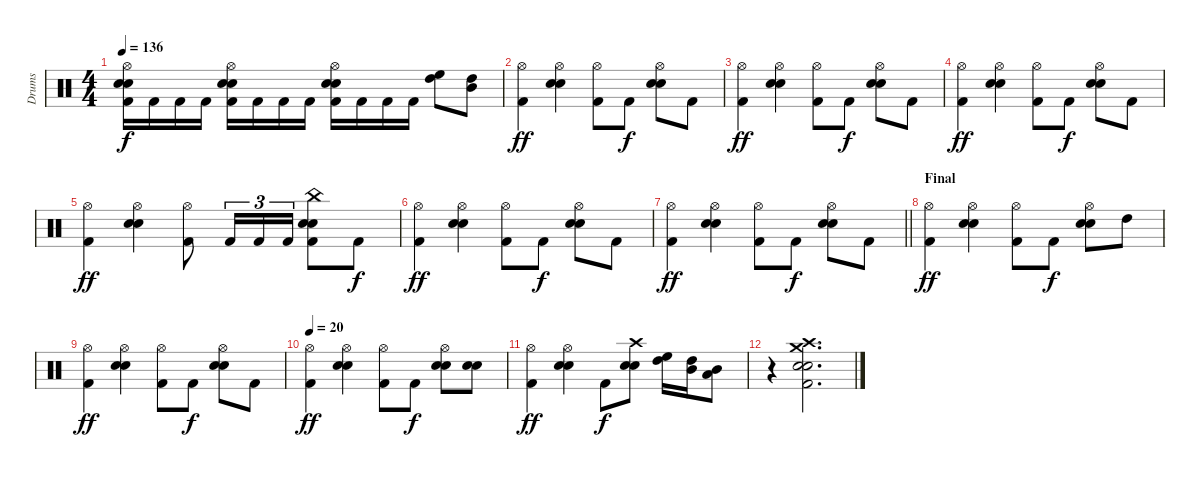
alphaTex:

\track ("Drums" "Drums") {instrument percussion}
\staff {score}
\articulation defaults
\ts (4 4)
\tempo 136
\clef neutral
\ks c
("Hi-Hat (open)" "Electric Snare (hit)" "Snare (hit) 2" "Kick (hit) 2").16{dy f} "Kick (hit) 2".16 "Kick (hit) 2".16 "Kick (hit) 2".16 ("Hi-Hat (open)" "Electric Snare (hit)" "Snare (hit) 2" "Kick (hit) 2").16 "Kick (hit) 2".16 "Kick (hit) 2".16 "Kick (hit) 2".16 ("Hi-Hat (open)" "Electric Snare (hit)" "Snare (hit) 2" "Kick (hit) 2").16 "Kick (hit) 2".16 "Kick (hit) 2".16 "Kick (hit) 2".16 ("High Floor Tom (hit)" "High Tom (hit)").8 ("High Tom (hit)" "Mid Tom (hit)").8 |
("Hi-Hat (open)" "Kick (hit) 2").4{dy ff} ("Hi-Hat (open)" "Electric Snare (hit)" "Snare (hit) 2").4 ("Hi-Hat (open)" "Kick (hit) 2").8 "Kick (hit) 2".8{dy f} ("Hi-Hat (open)" "Electric Snare (hit)" "Snare (hit) 2").8 "Kick (hit) 2".8 |
("Hi-Hat (open)" "Kick (hit) 2").4{dy ff} ("Hi-Hat (open)" "Electric Snare (hit)" "Snare (hit) 2").4 ("Hi-Hat (open)" "Kick (hit) 2").8 "Kick (hit) 2".8{dy f} ("Hi-Hat (open)" "Electric Snare (hit)" "Snare (hit) 2").8 "Kick (hit) 2".8 |
("Hi-Hat (open)" "Kick (hit) 2").4{dy ff} ("Hi-Hat (open)" "Electric Snare (hit)" "Snare (hit) 2").4 ("Hi-Hat (open)" "Kick (hit) 2").8 "Kick (hit) 2".8{dy f} ("Hi-Hat (open)" "Electric Snare (hit)" "Snare (hit) 2").8 "Kick (hit) 2".8 |
("Hi-Hat (open)" "Kick (hit) 2").4{dy ff} ("Hi-Hat (open)" "Electric Snare (hit)" "Snare (hit) 2").4 ("Hi-Hat (open)" "Kick (hit) 2").8 "Kick (hit) 2".16{tu (3 2)} "Kick (hit) 2".16{tu (3 2)} "Kick (hit) 2".16{tu (3 2)} ("China (hit)" "Electric Snare (hit)" "Snare (hit) 2" "Kick (hit) 2").8 "Kick (hit) 2".8{dy f} |
("Hi-Hat (open)" "Kick (hit) 2").4{dy ff} ("Hi-Hat (open)" "Electric Snare (hit)" "Snare (hit) 2").4 ("Hi-Hat (open)" "Kick (hit) 2").8 "Kick (hit) 2".8{dy f} ("Hi-Hat (open)" "Electric Snare (hit)" "Snare (hit) 2").8 "Kick (hit) 2".8 |
\barLineRight lightlight
("Hi-Hat (open)" "Kick (hit) 2").4{dy ff} ("Hi-Hat (open)" "Electric Snare (hit)" "Snare (hit) 2").4 ("Hi-Hat (open)" "Kick (hit) 2").8 "Kick (hit) 2".8{dy f} ("Hi-Hat (open)" "Electric Snare (hit)" "Snare (hit) 2").8 "Kick (hit) 2".8 |
\section ("" "Final")
("Hi-Hat (open)" "Kick (hit) 2").4{dy ff} ("Hi-Hat (open)" "Electric Snare (hit)" "Snare (hit) 2").4 ("Hi-Hat (open)" "Kick (hit) 2").8 "Kick (hit) 2".8{dy f} ("Hi-Hat (open)" "Electric Snare (hit)" "Snare (hit) 2").8 "High Tom (hit)".8 |
("Hi-Hat (open)" "Kick (hit) 2").4{dy ff} ("Hi-Hat (open)" "Electric Snare (hit)" "Snare (hit) 2").4 ("Hi-Hat (open)" "Kick (hit) 2").8 "Kick (hit) 2".8{dy f} ("Hi-Hat (open)" "Electric Snare (hit)" "Snare (hit) 2").8 "Kick (hit) 2".8 |
\tempo 20
("Hi-Hat (open)" "Kick (hit) 2").4{dy ff} ("Hi-Hat (open)" "Electric Snare (hit)" "Snare (hit) 2").4 ("Hi-Hat (open)" "Kick (hit) 2").8 "Kick (hit) 2".8{dy f} ("Hi-Hat (open)" "Electric Snare (hit)" "Snare (hit) 2").8 ("Electric Snare (hit)" "Snare (hit) 2").8 |
("Hi-Hat (open)" "Kick (hit) 2").4{dy ff} ("Hi-Hat (open)" "Electric Snare (hit)" "Snare (hit) 2").4 "Kick (hit) 2".8{dy f} ("Crash high (hit)" "Electric Snare (hit)" "Snare (hit) 2").8 ("High Floor Tom (hit)" "High Tom (hit)").16 ("High Tom (hit)" "Mid Tom (hit)").16 ("Mid Tom (hit)" "Low Tom (hit)").8 |
r.4 ("Crash medium (hit)" "Crash high (hit)" "Snare (hit) 2" "Electric Snare (hit)" "Kick (hit) 2").2{d}
